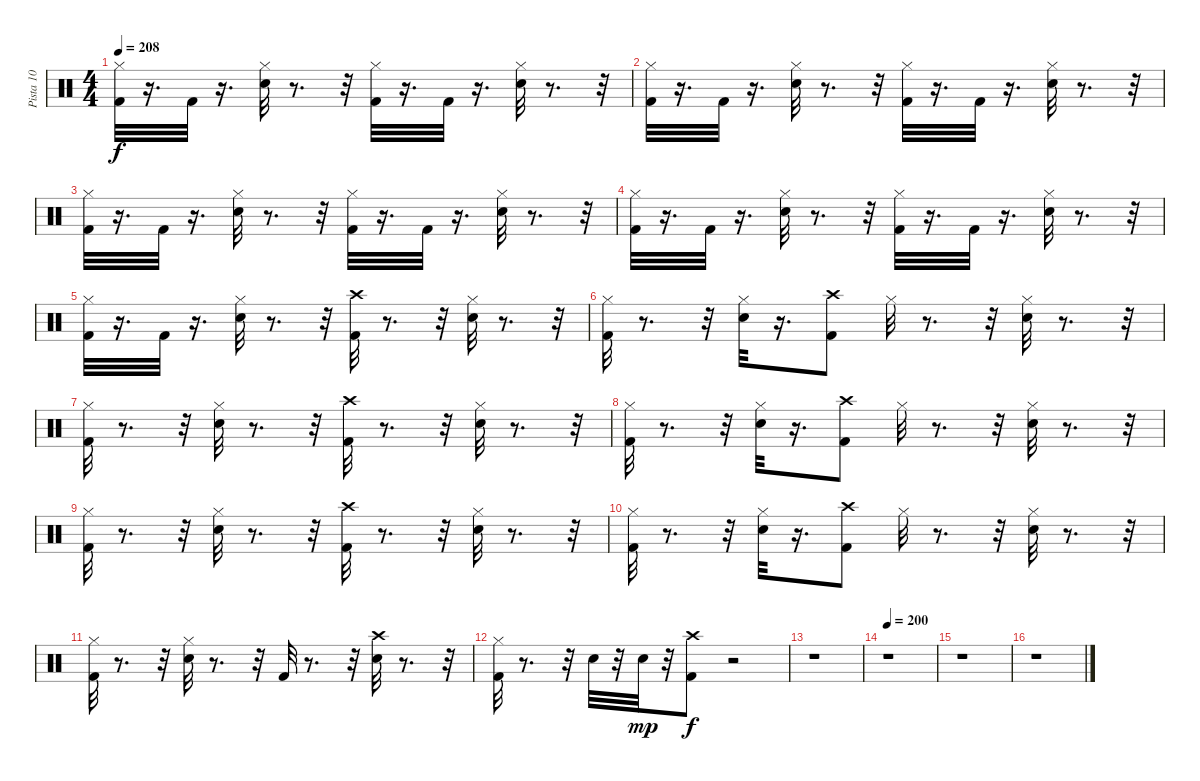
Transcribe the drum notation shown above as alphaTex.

\track ("Pista 10" "Pista 10") {instrument percussion}
\staff {score}
\articulation defaults
\ts (4 4)
\tempo 208
\clef neutral
\ks c
("Kick (hit) 2" "Hi-Hat (closed)").32{dy f} r.16{d} "Kick (hit) 2".32 r.16{d} ("Snare (hit) 2" "Hi-Hat (closed)").32 r.8{d} r.32 ("Kick (hit) 2" "Hi-Hat (closed)").32 r.16{d} "Kick (hit) 2".32 r.16{d} ("Snare (hit) 2" "Hi-Hat (closed)").32 r.8{d} r.32 |
("Kick (hit) 2" "Hi-Hat (closed)").32 r.16{d} "Kick (hit) 2".32 r.16{d} ("Snare (hit) 2" "Hi-Hat (closed)").32 r.8{d} r.32 ("Kick (hit) 2" "Hi-Hat (closed)").32 r.16{d} "Kick (hit) 2".32 r.16{d} ("Snare (hit) 2" "Hi-Hat (closed)").32 r.8{d} r.32 |
("Kick (hit) 2" "Hi-Hat (closed)").32 r.16{d} "Kick (hit) 2".32 r.16{d} ("Snare (hit) 2" "Hi-Hat (closed)").32 r.8{d} r.32 ("Kick (hit) 2" "Hi-Hat (closed)").32 r.16{d} "Kick (hit) 2".32 r.16{d} ("Snare (hit) 2" "Hi-Hat (closed)").32 r.8{d} r.32 |
("Kick (hit) 2" "Hi-Hat (closed)").32 r.16{d} "Kick (hit) 2".32 r.16{d} ("Snare (hit) 2" "Hi-Hat (closed)").32 r.8{d} r.32 ("Kick (hit) 2" "Hi-Hat (closed)").32 r.16{d} "Kick (hit) 2".32 r.16{d} ("Snare (hit) 2" "Hi-Hat (closed)").32 r.8{d} r.32 |
("Kick (hit) 2" "Hi-Hat (closed)").32 r.16{d} "Kick (hit) 2".32 r.16{d} ("Snare (hit) 2" "Hi-Hat (closed)").32 r.8{d} r.32 ("Kick (hit) 2" "Crash high (hit)").32 r.8{d} r.32 ("Snare (hit) 2" "Hi-Hat (closed)").32 r.8{d} r.32 |
("Kick (hit) 2" "Hi-Hat (closed)").32 r.8{d} r.32 ("Snare (hit) 2" "Hi-Hat (closed)").32 r.16{d} ("Crash high (hit)" "Kick (hit) 2").8 "Hi-Hat (closed)".32 r.8{d} r.32 ("Snare (hit) 2" "Hi-Hat (closed)").32 r.8{d} r.32 |
("Hi-Hat (closed)" "Kick (hit) 2").32 r.8{d} r.32 ("Snare (hit) 2" "Hi-Hat (closed)").32 r.8{d} r.32 ("Kick (hit) 2" "Crash high (hit)").32 r.8{d} r.32 ("Snare (hit) 2" "Hi-Hat (closed)").32 r.8{d} r.32 |
("Kick (hit) 2" "Hi-Hat (closed)").32 r.8{d} r.32 ("Snare (hit) 2" "Hi-Hat (closed)").32 r.16{d} ("Crash high (hit)" "Kick (hit) 2").8 "Hi-Hat (closed)".32 r.8{d} r.32 ("Snare (hit) 2" "Hi-Hat (closed)").32 r.8{d} r.32 |
("Hi-Hat (closed)" "Kick (hit) 2").32 r.8{d} r.32 ("Snare (hit) 2" "Hi-Hat (closed)").32 r.8{d} r.32 ("Kick (hit) 2" "Crash high (hit)").32 r.8{d} r.32 ("Snare (hit) 2" "Hi-Hat (closed)").32 r.8{d} r.32 |
("Kick (hit) 2" "Hi-Hat (closed)").32 r.8{d} r.32 ("Snare (hit) 2" "Hi-Hat (closed)").32 r.16{d} ("Crash high (hit)" "Kick (hit) 2").8 "Hi-Hat (closed)".32 r.8{d} r.32 ("Snare (hit) 2" "Hi-Hat (closed)").32 r.8{d} r.32 |
("Hi-Hat (closed)" "Kick (hit) 2").32 r.8{d} r.32 ("Snare (hit) 2" "Hi-Hat (closed)").32 r.8{d} r.32 "Kick (hit) 2".32 r.8{d} r.32 ("Crash high (hit)" "Snare (hit) 2").32 r.8{d} r.32 |
("Kick (hit) 2" "Hi-Hat (closed)").32 r.8{d} r.32 "Snare (hit) 2".32 r.32 "Snare (hit) 2".32{dy mp} r.32 ("Crash high (hit)" "Kick (hit) 2").8{dy f} r.2 |
r.1 |
\tempo 200
r.1 |
r.1 |
r.1
